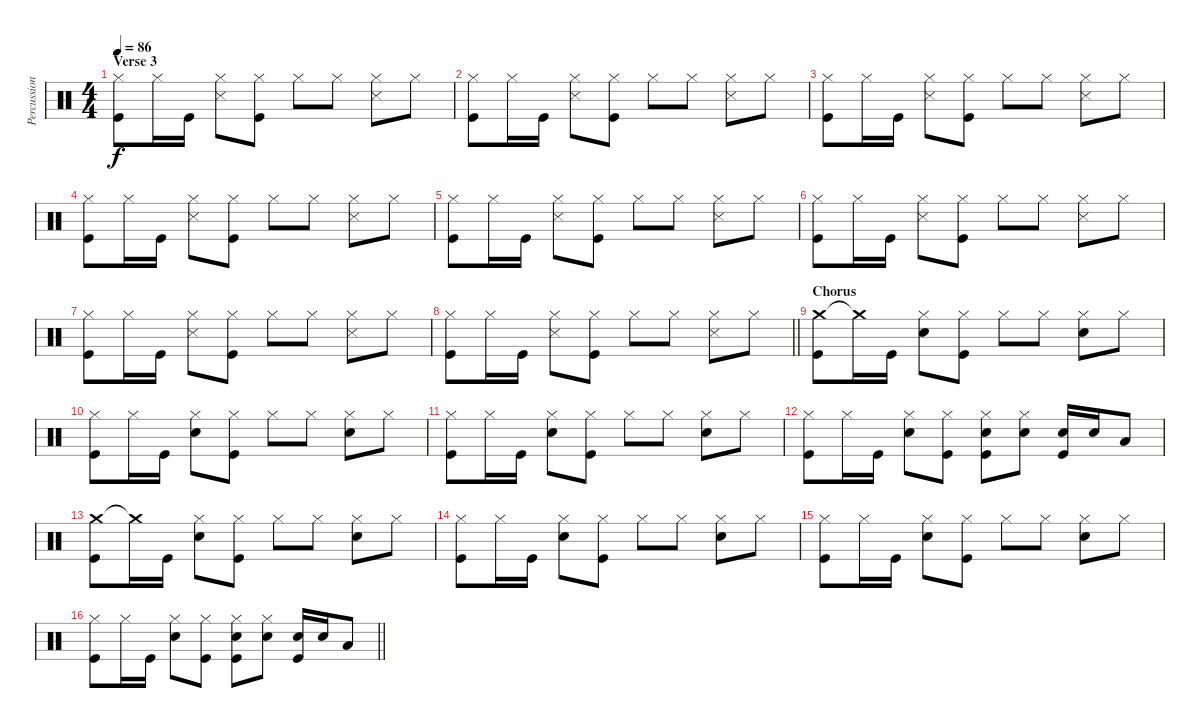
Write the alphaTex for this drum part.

\track ("Percussion" "Percussion") {instrument percussion}
\staff {score}
\articulation defaults
\ts (4 4)
\section ("" "Verse 3")
\tempo 86
\clef neutral
\ks c
("Hi-Hat (closed)" "Kick (hit)").8{dy f} "Hi-Hat (closed)".16 "Kick (hit)".16 ("Hi-Hat (closed)" "Snare (side stick) 3").8 ("Hi-Hat (closed)" "Kick (hit)").8 "Hi-Hat (closed)".8 "Hi-Hat (closed)".8 ("Hi-Hat (closed)" "Snare (side stick) 3").8 "Hi-Hat (closed)".8 |
("Hi-Hat (closed)" "Kick (hit)").8 "Hi-Hat (closed)".16 "Kick (hit)".16 ("Hi-Hat (closed)" "Snare (side stick) 3").8 ("Hi-Hat (closed)" "Kick (hit)").8 "Hi-Hat (closed)".8 "Hi-Hat (closed)".8 ("Hi-Hat (closed)" "Snare (side stick) 3").8 "Hi-Hat (closed)".8 |
("Hi-Hat (closed)" "Kick (hit)").8 "Hi-Hat (closed)".16 "Kick (hit)".16 ("Hi-Hat (closed)" "Snare (side stick) 3").8 ("Hi-Hat (closed)" "Kick (hit)").8 "Hi-Hat (closed)".8 "Hi-Hat (closed)".8 ("Hi-Hat (closed)" "Snare (side stick) 3").8 "Hi-Hat (closed)".8 |
("Hi-Hat (closed)" "Kick (hit)").8 "Hi-Hat (closed)".16 "Kick (hit)".16 ("Hi-Hat (closed)" "Snare (side stick) 3").8 ("Hi-Hat (closed)" "Kick (hit)").8 "Hi-Hat (closed)".8 "Hi-Hat (closed)".8 ("Hi-Hat (closed)" "Snare (side stick) 3").8 "Hi-Hat (closed)".8 |
("Hi-Hat (closed)" "Kick (hit)").8 "Hi-Hat (closed)".16 "Kick (hit)".16 ("Hi-Hat (closed)" "Snare (side stick) 3").8 ("Hi-Hat (closed)" "Kick (hit)").8 "Hi-Hat (closed)".8 "Hi-Hat (closed)".8 ("Hi-Hat (closed)" "Snare (side stick) 3").8 "Hi-Hat (closed)".8 |
("Hi-Hat (closed)" "Kick (hit)").8 "Hi-Hat (closed)".16 "Kick (hit)".16 ("Hi-Hat (closed)" "Snare (side stick) 3").8 ("Hi-Hat (closed)" "Kick (hit)").8 "Hi-Hat (closed)".8 "Hi-Hat (closed)".8 ("Hi-Hat (closed)" "Snare (side stick) 3").8 "Hi-Hat (closed)".8 |
("Hi-Hat (closed)" "Kick (hit)").8 "Hi-Hat (closed)".16 "Kick (hit)".16 ("Hi-Hat (closed)" "Snare (side stick) 3").8 ("Hi-Hat (closed)" "Kick (hit)").8 "Hi-Hat (closed)".8 "Hi-Hat (closed)".8 ("Hi-Hat (closed)" "Snare (side stick) 3").8 "Hi-Hat (closed)".8 |
\barLineRight lightlight
("Hi-Hat (closed)" "Kick (hit)").8 "Hi-Hat (closed)".16 "Kick (hit)".16 ("Hi-Hat (closed)" "Snare (side stick) 3").8 ("Hi-Hat (closed)" "Kick (hit)").8 "Hi-Hat (closed)".8 "Hi-Hat (closed)".8 ("Hi-Hat (closed)" "Snare (side stick) 3").8 "Hi-Hat (closed)".8 |
\section ("" "Chorus")
("Crash medium (hit)" "Kick (hit)").8 "Crash medium (hit)"{t}.16 "Kick (hit)".16 ("Hi-Hat (closed)" "Snare (hit) 2").8 ("Hi-Hat (closed)" "Kick (hit)").8 "Hi-Hat (closed)".8 "Hi-Hat (closed)".8 ("Hi-Hat (closed)" "Snare (hit) 2").8 "Hi-Hat (closed)".8 |
("Hi-Hat (closed)" "Kick (hit)").8 "Hi-Hat (closed)".16 "Kick (hit)".16 ("Hi-Hat (closed)" "Snare (hit) 2").8 ("Hi-Hat (closed)" "Kick (hit)").8 "Hi-Hat (closed)".8 "Hi-Hat (closed)".8 ("Hi-Hat (closed)" "Snare (hit) 2").8 "Hi-Hat (closed)".8 |
("Hi-Hat (closed)" "Kick (hit)").8 "Hi-Hat (closed)".16 "Kick (hit)".16 ("Hi-Hat (closed)" "Snare (hit) 2").8 ("Hi-Hat (closed)" "Kick (hit)").8 "Hi-Hat (closed)".8 "Hi-Hat (closed)".8 ("Hi-Hat (closed)" "Snare (hit) 2").8 "Hi-Hat (closed)".8 |
("Hi-Hat (closed)" "Kick (hit)").8 "Hi-Hat (closed)".16 "Kick (hit)".16 ("Hi-Hat (closed)" "Snare (hit) 2").8 ("Hi-Hat (closed)" "Kick (hit)").8 ("Hi-Hat (closed)" "Snare (hit) 2" "Kick (hit)").8 ("Hi-Hat (closed)" "Snare (hit) 2").8 ("Snare (hit) 2" "Kick (hit)").16 "Snare (hit) 2".16 "Low Tom (hit)".8 |
("Crash medium (hit)" "Kick (hit)").8 "Crash medium (hit)"{t}.16 "Kick (hit)".16 ("Hi-Hat (closed)" "Snare (hit) 2").8 ("Hi-Hat (closed)" "Kick (hit)").8 "Hi-Hat (closed)".8 "Hi-Hat (closed)".8 ("Hi-Hat (closed)" "Snare (hit) 2").8 "Hi-Hat (closed)".8 |
("Hi-Hat (closed)" "Kick (hit)").8 "Hi-Hat (closed)".16 "Kick (hit)".16 ("Hi-Hat (closed)" "Snare (hit) 2").8 ("Hi-Hat (closed)" "Kick (hit)").8 "Hi-Hat (closed)".8 "Hi-Hat (closed)".8 ("Hi-Hat (closed)" "Snare (hit) 2").8 "Hi-Hat (closed)".8 |
("Hi-Hat (closed)" "Kick (hit)").8 "Hi-Hat (closed)".16 "Kick (hit)".16 ("Hi-Hat (closed)" "Snare (hit) 2").8 ("Hi-Hat (closed)" "Kick (hit)").8 "Hi-Hat (closed)".8 "Hi-Hat (closed)".8 ("Hi-Hat (closed)" "Snare (hit) 2").8 "Hi-Hat (closed)".8 |
\barLineRight lightlight
("Hi-Hat (closed)" "Kick (hit)").8 "Hi-Hat (closed)".16 "Kick (hit)".16 ("Hi-Hat (closed)" "Snare (hit) 2").8 ("Hi-Hat (closed)" "Kick (hit)").8 ("Hi-Hat (closed)" "Snare (hit) 2" "Kick (hit)").8 ("Hi-Hat (closed)" "Snare (hit) 2").8 ("Snare (hit) 2" "Kick (hit)").16 "Snare (hit) 2".16 "Low Tom (hit)".8
